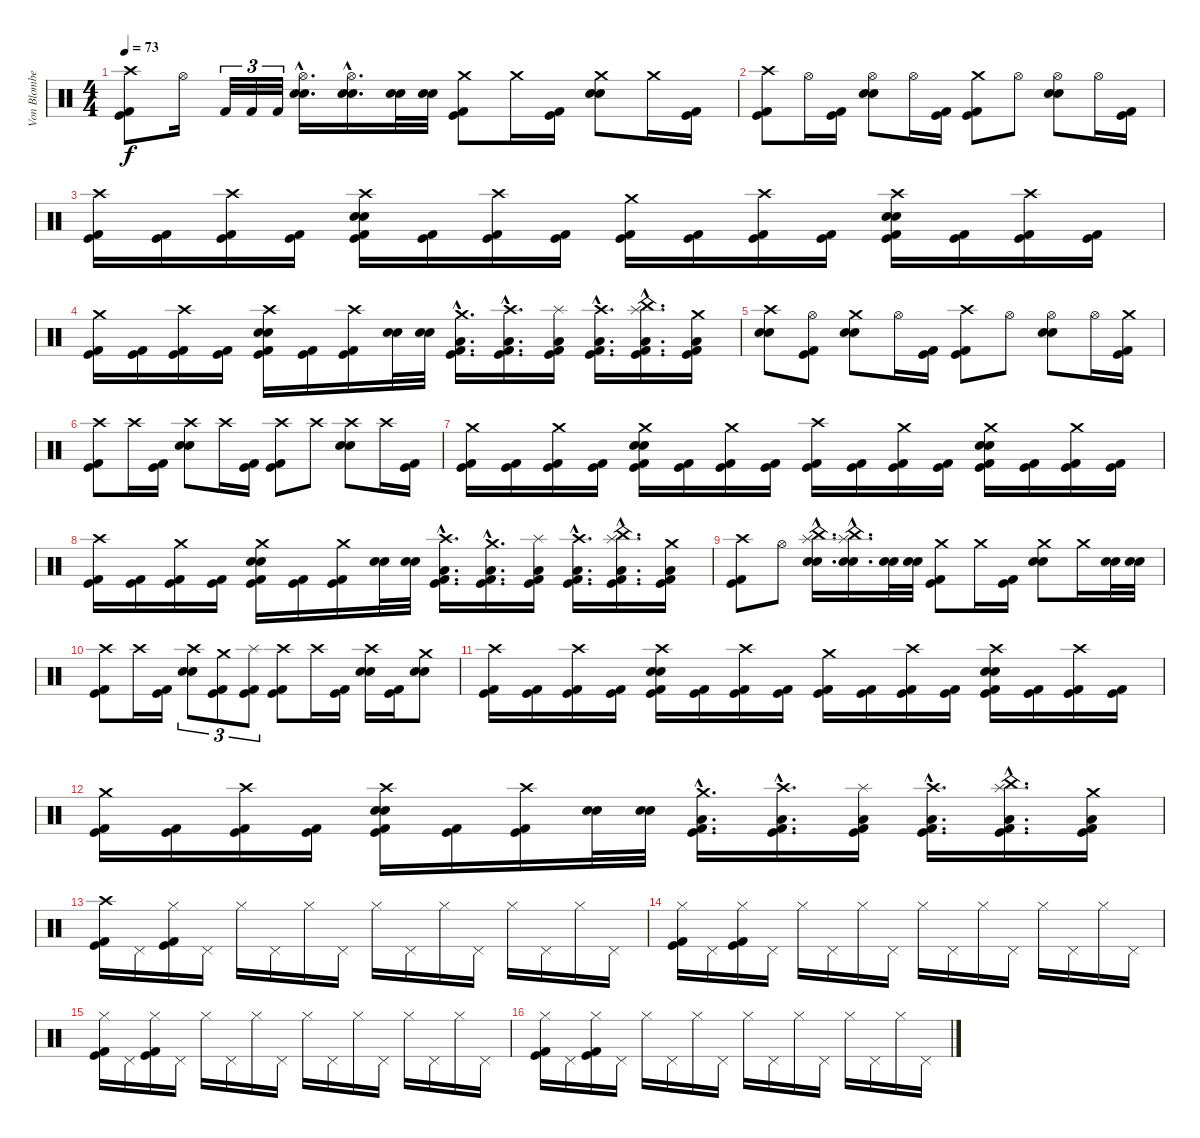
\track ("Von Blomberg" "Von Blombe") {instrument percussion}
\staff {score}
\articulation defaults
\ts (4 4)
\tempo 73
\clef neutral
\ks c
("Crash high (hit)" "Kick (hit)" "Kick (hit) 2").8{dy f} "Hi-Hat (open)".16 "Kick (hit) 2".32{tu (3 2)} "Kick (hit) 2".32{tu (3 2)} "Kick (hit) 2".32{tu (3 2)} ("Hi-Hat (open)"{hac} "Snare (hit) 2"{hac} "Electric Snare (hit)"{hac}).16{d} ("Hi-Hat (open)"{hac} "Electric Snare (hit)"{hac} "Snare (hit) 2"{hac}).16{d} ("Electric Snare (hit)" "Snare (hit) 2").32 ("Electric Snare (hit)" "Snare (hit) 2").32 ("Crash medium (hit)" "Kick (hit)" "Kick (hit) 2").8 "Crash medium (hit)".16 ("Kick (hit)" "Kick (hit) 2").16 ("Crash medium (hit)" "Snare (hit) 2" "Electric Snare (hit)").8 "Crash medium (hit)".16 ("Kick (hit)" "Kick (hit) 2").16 |
("Crash high (hit)" "Kick (hit)" "Kick (hit) 2").8 "Hi-Hat (open)".16 ("Kick (hit)" "Kick (hit) 2").16 ("Hi-Hat (open)" "Snare (hit) 2" "Electric Snare (hit)").8 "Hi-Hat (open)".16 ("Kick (hit)" "Kick (hit) 2").16 ("Crash medium (hit)" "Kick (hit)" "Kick (hit) 2").8 "Hi-Hat (open)".8 ("Hi-Hat (open)" "Snare (hit) 2" "Electric Snare (hit)").8 "Hi-Hat (open)".16 ("Kick (hit)" "Kick (hit) 2").16 |
("Crash high (hit)" "Kick (hit)" "Kick (hit) 2").16 ("Kick (hit)" "Kick (hit) 2").16 ("Crash high (hit)" "Kick (hit)" "Kick (hit) 2").16 ("Kick (hit)" "Kick (hit) 2").16 ("Crash high (hit)" "Electric Snare (hit)" "Snare (hit) 2" "Kick (hit)" "Kick (hit) 2").16 ("Kick (hit)" "Kick (hit) 2").16 ("Crash high (hit)" "Kick (hit)" "Kick (hit) 2").16 ("Kick (hit)" "Kick (hit) 2").16 ("Crash medium (hit)" "Kick (hit)" "Kick (hit) 2").16 ("Kick (hit)" "Kick (hit) 2").16 ("Crash high (hit)" "Kick (hit)" "Kick (hit) 2").16 ("Kick (hit)" "Kick (hit) 2").16 ("Crash high (hit)" "Electric Snare (hit)" "Snare (hit) 2" "Kick (hit)" "Kick (hit) 2").16 ("Kick (hit)" "Kick (hit) 2").16 ("Crash high (hit)" "Kick (hit)" "Kick (hit) 2").16 ("Kick (hit)" "Kick (hit) 2").16 |
("Crash medium (hit)" "Kick (hit)" "Kick (hit) 2").16 ("Kick (hit)" "Kick (hit) 2").16 ("Crash high (hit)" "Kick (hit)" "Kick (hit) 2").16 ("Kick (hit)" "Kick (hit) 2").16 ("Crash high (hit)" "Electric Snare (hit)" "Snare (hit) 2" "Kick (hit)" "Kick (hit) 2").16 ("Kick (hit)" "Kick (hit) 2").16 ("Crash high (hit)" "Kick (hit)" "Kick (hit) 2").16 ("Electric Snare (hit)" "Snare (hit) 2").32 ("Electric Snare (hit)" "Snare (hit) 2").32 ("Crash medium (hit)"{hac} "Low Floor Tom (hit)"{hac} "Kick (hit)"{hac} "Kick (hit) 2"{hac}).16{d} ("Crash high (hit)"{hac} "Low Floor Tom (hit)"{hac} "Kick (hit)"{hac} "Kick (hit) 2"{hac}).16{d} ("Splash (hit)" "Low Floor Tom (hit)" "Kick (hit)" "Kick (hit) 2").16 ("Crash high (hit)"{hac} "Low Floor Tom (hit)"{hac} "Kick (hit)"{hac} "Kick (hit) 2"{hac}).16{d} ("China (hit)"{hac} "Splash (hit)"{hac} "Low Floor Tom (hit)"{hac} "Kick (hit)"{hac} "Kick (hit) 2"{hac}).16{d} ("Crash medium (hit)" "Low Floor Tom (hit)" "Kick (hit)" "Kick (hit) 2").16 |
("Crash high (hit)" "Snare (hit) 2" "Electric Snare (hit)").8 ("Hi-Hat (open)" "Kick (hit)" "Kick (hit) 2").8 ("Crash medium (hit)" "Snare (hit) 2" "Electric Snare (hit)").8 "Hi-Hat (open)".16 ("Kick (hit)" "Kick (hit) 2").16 ("Crash high (hit)" "Kick (hit)" "Kick (hit) 2").8 "Hi-Hat (open)".8 ("Hi-Hat (open)" "Electric Snare (hit)" "Snare (hit) 2").8 "Hi-Hat (open)".16 ("Crash medium (hit)" "Kick (hit)" "Kick (hit) 2").16 |
("Crash high (hit)" "Kick (hit)" "Kick (hit) 2").8 "Crash high (hit)".16 ("Kick (hit)" "Kick (hit) 2").16 ("Crash high (hit)" "Snare (hit) 2" "Electric Snare (hit)").8 "Crash high (hit)".16 ("Kick (hit)" "Kick (hit) 2").16 ("Crash high (hit)" "Kick (hit)" "Kick (hit) 2").8 "Crash high (hit)".8 ("Crash high (hit)" "Snare (hit) 2" "Electric Snare (hit)").8 "Crash high (hit)".16 ("Kick (hit)" "Kick (hit) 2").16 |
("Crash medium (hit)" "Kick (hit)" "Kick (hit) 2").16 ("Kick (hit)" "Kick (hit) 2").16 ("Crash medium (hit)" "Kick (hit)" "Kick (hit) 2").16 ("Kick (hit)" "Kick (hit) 2").16 ("Crash medium (hit)" "Electric Snare (hit)" "Snare (hit) 2" "Kick (hit)" "Kick (hit) 2").16 ("Kick (hit)" "Kick (hit) 2").16 ("Crash medium (hit)" "Kick (hit)" "Kick (hit) 2").16 ("Kick (hit)" "Kick (hit) 2").16 ("Crash high (hit)" "Kick (hit)" "Kick (hit) 2").16 ("Kick (hit)" "Kick (hit) 2").16 ("Crash medium (hit)" "Kick (hit)" "Kick (hit) 2").16 ("Kick (hit)" "Kick (hit) 2").16 ("Crash medium (hit)" "Electric Snare (hit)" "Snare (hit) 2" "Kick (hit)" "Kick (hit) 2").16 ("Kick (hit)" "Kick (hit) 2").16 ("Crash medium (hit)" "Kick (hit)" "Kick (hit) 2").16 ("Kick (hit)" "Kick (hit) 2").16 |
("Crash high (hit)" "Kick (hit)" "Kick (hit) 2").16 ("Kick (hit)" "Kick (hit) 2").16 ("Crash medium (hit)" "Kick (hit)" "Kick (hit) 2").16 ("Kick (hit)" "Kick (hit) 2").16 ("Crash medium (hit)" "Electric Snare (hit)" "Snare (hit) 2" "Kick (hit)" "Kick (hit) 2").16 ("Kick (hit)" "Kick (hit) 2").16 ("Crash medium (hit)" "Kick (hit)" "Kick (hit) 2").16 ("Electric Snare (hit)" "Snare (hit) 2").32 ("Electric Snare (hit)" "Snare (hit) 2").32 ("Crash high (hit)"{hac} "Low Floor Tom (hit)"{hac} "Kick (hit)"{hac} "Kick (hit) 2"{hac}).16{d} ("Crash medium (hit)"{hac} "Low Floor Tom (hit)"{hac} "Kick (hit)"{hac} "Kick (hit) 2"{hac}).16{d} ("Splash (hit)" "Low Floor Tom (hit)" "Kick (hit)" "Kick (hit) 2").16 ("Crash high (hit)"{hac} "Low Floor Tom (hit)"{hac} "Kick (hit)"{hac} "Kick (hit) 2"{hac}).16{d} ("China (hit)"{hac} "Splash (hit)"{hac} "Low Floor Tom (hit)"{hac} "Kick (hit)"{hac} "Kick (hit) 2"{hac}).16{d} ("Crash medium (hit)" "Low Floor Tom (hit)" "Kick (hit)" "Kick (hit) 2").16 |
("Crash high (hit)" "Kick (hit)" "Kick (hit) 2").8 "Hi-Hat (open)".8 ("China (hit)"{hac} "Splash (hit)"{hac} "Snare (hit) 2"{hac} "Electric Snare (hit)"{hac}).16{d} ("China (hit)"{hac} "Splash (hit)"{hac} "Electric Snare (hit)"{hac} "Snare (hit) 2"{hac}).16{d} ("Electric Snare (hit)" "Snare (hit) 2").32 ("Electric Snare (hit)" "Snare (hit) 2").32 ("Crash medium (hit)" "Kick (hit)" "Kick (hit) 2").8 "Crash medium (hit)".16 ("Kick (hit)" "Kick (hit) 2").16 ("Crash medium (hit)" "Snare (hit) 2" "Electric Snare (hit)").8 "Crash medium (hit)".16 ("Snare (hit) 2" "Electric Snare (hit)").32 ("Snare (hit) 2" "Electric Snare (hit)").32 |
("Crash high (hit)" "Kick (hit)" "Kick (hit) 2").8 "Crash high (hit)".16 ("Kick (hit)" "Kick (hit) 2").16 ("Crash high (hit)" "Electric Snare (hit)" "Snare (hit) 2").8{tu (3 2)} ("Crash medium (hit)" "Kick (hit)" "Kick (hit) 2").8{tu (3 2)} ("Splash (hit)" "Kick (hit)" "Kick (hit) 2").8{tu (3 2)} ("Crash high (hit)" "Kick (hit)" "Kick (hit) 2").8 "Crash high (hit)".16 ("Kick (hit)" "Kick (hit) 2").16 ("Crash high (hit)" "Electric Snare (hit)" "Snare (hit) 2").16 ("Kick (hit)" "Kick (hit) 2").16 ("Crash medium (hit)" "Electric Snare (hit)" "Snare (hit) 2").8 |
("Crash high (hit)" "Kick (hit)" "Kick (hit) 2").16 ("Kick (hit)" "Kick (hit) 2").16 ("Crash high (hit)" "Kick (hit)" "Kick (hit) 2").16 ("Kick (hit)" "Kick (hit) 2").16 ("Crash high (hit)" "Electric Snare (hit)" "Snare (hit) 2" "Kick (hit)" "Kick (hit) 2").16 ("Kick (hit)" "Kick (hit) 2").16 ("Crash high (hit)" "Kick (hit)" "Kick (hit) 2").16 ("Kick (hit)" "Kick (hit) 2").16 ("Crash medium (hit)" "Kick (hit)" "Kick (hit) 2").16 ("Kick (hit)" "Kick (hit) 2").16 ("Crash high (hit)" "Kick (hit)" "Kick (hit) 2").16 ("Kick (hit)" "Kick (hit) 2").16 ("Crash high (hit)" "Electric Snare (hit)" "Snare (hit) 2" "Kick (hit)" "Kick (hit) 2").16 ("Kick (hit)" "Kick (hit) 2").16 ("Crash high (hit)" "Kick (hit)" "Kick (hit) 2").16 ("Kick (hit)" "Kick (hit) 2").16 |
("Crash medium (hit)" "Kick (hit)" "Kick (hit) 2").16 ("Kick (hit)" "Kick (hit) 2").16 ("Crash high (hit)" "Kick (hit)" "Kick (hit) 2").16 ("Kick (hit)" "Kick (hit) 2").16 ("Crash high (hit)" "Electric Snare (hit)" "Snare (hit) 2" "Kick (hit)" "Kick (hit) 2").16 ("Kick (hit)" "Kick (hit) 2").16 ("Crash high (hit)" "Kick (hit)" "Kick (hit) 2").16 ("Electric Snare (hit)" "Snare (hit) 2").32 ("Electric Snare (hit)" "Snare (hit) 2").32 ("Crash medium (hit)"{hac} "Low Floor Tom (hit)"{hac} "Kick (hit)"{hac} "Kick (hit) 2"{hac}).16{d} ("Crash high (hit)"{hac} "Low Floor Tom (hit)"{hac} "Kick (hit)"{hac} "Kick (hit) 2"{hac}).16{d} ("Splash (hit)" "Low Floor Tom (hit)" "Kick (hit)" "Kick (hit) 2").16 ("Crash high (hit)"{hac} "Low Floor Tom (hit)"{hac} "Kick (hit)"{hac} "Kick (hit) 2"{hac}).16{d} ("China (hit)"{hac} "Splash (hit)"{hac} "Low Floor Tom (hit)"{hac} "Kick (hit)"{hac} "Kick (hit) 2"{hac}).16{d} ("Crash medium (hit)" "Low Floor Tom (hit)" "Kick (hit)" "Kick (hit) 2").16 |
("Crash high (hit)" "Kick (hit)" "Kick (hit) 2").16 "Pedal Hi-Hat (hit)".16 ("Hi-Hat (closed)" "Kick (hit)" "Kick (hit) 2").16 "Pedal Hi-Hat (hit)".16 "Hi-Hat (closed)".16 "Pedal Hi-Hat (hit)".16 "Hi-Hat (closed)".16 "Pedal Hi-Hat (hit)".16 "Hi-Hat (closed)".16 "Pedal Hi-Hat (hit)".16 "Hi-Hat (closed)".16 "Pedal Hi-Hat (hit)".16 "Hi-Hat (closed)".16 "Pedal Hi-Hat (hit)".16 "Hi-Hat (closed)".16 "Pedal Hi-Hat (hit)".16 |
("Hi-Hat (closed)" "Kick (hit)" "Kick (hit) 2").16 "Pedal Hi-Hat (hit)".16 ("Hi-Hat (closed)" "Kick (hit)" "Kick (hit) 2").16 "Pedal Hi-Hat (hit)".16 "Hi-Hat (closed)".16 "Pedal Hi-Hat (hit)".16 "Hi-Hat (closed)".16 "Pedal Hi-Hat (hit)".16 "Hi-Hat (closed)".16 "Pedal Hi-Hat (hit)".16 "Hi-Hat (closed)".16 "Pedal Hi-Hat (hit)".16 "Hi-Hat (closed)".16 "Pedal Hi-Hat (hit)".16 "Hi-Hat (closed)".16 "Pedal Hi-Hat (hit)".16 |
("Hi-Hat (closed)" "Kick (hit)" "Kick (hit) 2").16 "Pedal Hi-Hat (hit)".16 ("Hi-Hat (closed)" "Kick (hit)" "Kick (hit) 2").16 "Pedal Hi-Hat (hit)".16 "Hi-Hat (closed)".16 "Pedal Hi-Hat (hit)".16 "Hi-Hat (closed)".16 "Pedal Hi-Hat (hit)".16 "Hi-Hat (closed)".16 "Pedal Hi-Hat (hit)".16 "Hi-Hat (closed)".16 "Pedal Hi-Hat (hit)".16 "Hi-Hat (closed)".16 "Pedal Hi-Hat (hit)".16 "Hi-Hat (closed)".16 "Pedal Hi-Hat (hit)".16 |
("Hi-Hat (closed)" "Kick (hit)" "Kick (hit) 2").16 "Pedal Hi-Hat (hit)".16 ("Hi-Hat (closed)" "Kick (hit)" "Kick (hit) 2").16 "Pedal Hi-Hat (hit)".16 "Hi-Hat (closed)".16 "Pedal Hi-Hat (hit)".16 "Hi-Hat (closed)".16 "Pedal Hi-Hat (hit)".16 "Hi-Hat (closed)".16 "Pedal Hi-Hat (hit)".16 "Hi-Hat (closed)".16 "Pedal Hi-Hat (hit)".16 "Hi-Hat (closed)".16 "Pedal Hi-Hat (hit)".16 "Hi-Hat (closed)".16 "Pedal Hi-Hat (hit)".16
